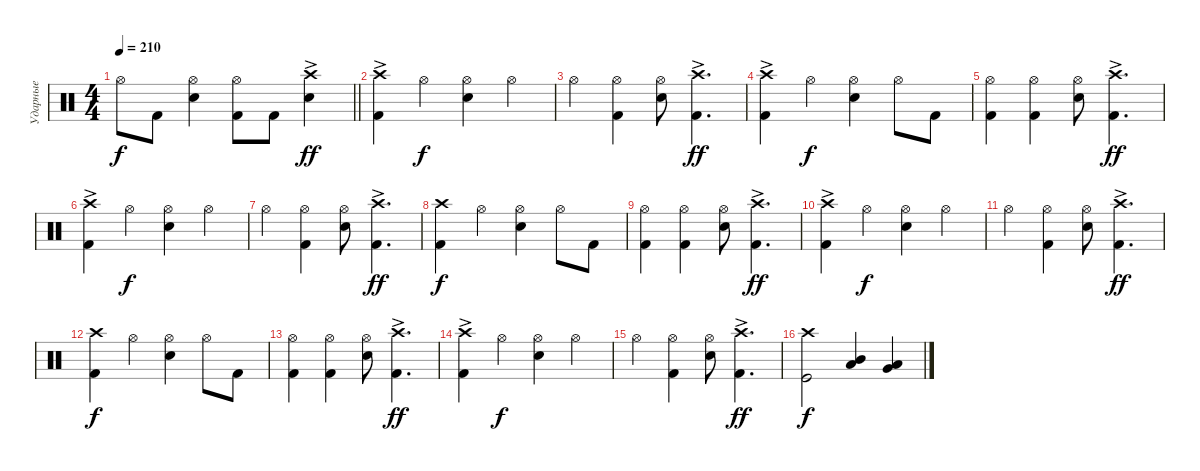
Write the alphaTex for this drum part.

\track ("Ударные" "Ударные") {instrument percussion}
\staff {score}
\articulation defaults
\ts (4 4)
\tempo 210
\clef neutral
\barLineRight lightlight
\ks c "Hi-Hat (open)".8{dy f} "Kick (hit) 2".8
("Hi-Hat (open)" "Snare (hit) 2").4 ("Hi-Hat (open)" "Kick (hit) 2").8 "Kick (hit) 2".8 ("Crash high (hit)"{ac} "Snare (hit) 2").4{dy ff} |
\section ("" "")
("Crash high (hit)"{ac} "Kick (hit) 2").4 "Hi-Hat (open)".4{dy f} ("Hi-Hat (open)" "Snare (hit) 2").4 "Hi-Hat (open)".4 |
"Hi-Hat (open)".4 ("Hi-Hat (open)" "Kick (hit) 2").4 ("Hi-Hat (open)" "Snare (hit) 2").8 ("Crash high (hit)"{ac} "Kick (hit) 2").4{d dy ff} |
("Crash high (hit)"{ac} "Kick (hit) 2").4 "Hi-Hat (open)".4{dy f} ("Hi-Hat (open)" "Snare (hit) 2").4 "Hi-Hat (open)".8 "Kick (hit) 2".8 |
("Hi-Hat (open)" "Kick (hit) 2").4 ("Hi-Hat (open)" "Kick (hit) 2").4 ("Hi-Hat (open)" "Snare (hit) 2").8 ("Crash high (hit)"{ac} "Kick (hit) 2").4{d dy ff} |
("Crash high (hit)"{ac} "Kick (hit) 2").4 "Hi-Hat (open)".4{dy f} ("Hi-Hat (open)" "Snare (hit) 2").4 "Hi-Hat (open)".4 |
"Hi-Hat (open)".4 ("Hi-Hat (open)" "Kick (hit) 2").4 ("Hi-Hat (open)" "Snare (hit) 2").8 ("Crash high (hit)"{ac} "Kick (hit) 2").4{d dy ff} |
("Crash high (hit)" "Kick (hit) 2").4{dy f} "Hi-Hat (open)".4 ("Hi-Hat (open)" "Snare (hit) 2").4 "Hi-Hat (open)".8 "Kick (hit) 2".8 |
("Hi-Hat (open)" "Kick (hit) 2").4 ("Hi-Hat (open)" "Kick (hit) 2").4 ("Hi-Hat (open)" "Snare (hit) 2").8 ("Crash high (hit)"{ac} "Kick (hit) 2").4{d dy ff} |
("Crash high (hit)"{ac} "Kick (hit) 2").4 "Hi-Hat (open)".4{dy f} ("Hi-Hat (open)" "Snare (hit) 2").4 "Hi-Hat (open)".4 |
"Hi-Hat (open)".4 ("Hi-Hat (open)" "Kick (hit) 2").4 ("Hi-Hat (open)" "Snare (hit) 2").8 ("Crash high (hit)"{ac} "Kick (hit) 2").4{d dy ff} |
("Crash high (hit)" "Kick (hit) 2").4{dy f} "Hi-Hat (open)".4 ("Hi-Hat (open)" "Snare (hit) 2").4 "Hi-Hat (open)".8 "Kick (hit) 2".8 |
("Hi-Hat (open)" "Kick (hit) 2").4 ("Hi-Hat (open)" "Kick (hit) 2").4 ("Hi-Hat (open)" "Snare (hit) 2").8 ("Crash high (hit)"{ac} "Kick (hit) 2").4{d dy ff} |
("Crash high (hit)"{ac} "Kick (hit) 2").4 "Hi-Hat (open)".4{dy f} ("Hi-Hat (open)" "Snare (hit) 2").4 "Hi-Hat (open)".4 |
"Hi-Hat (open)".4 ("Hi-Hat (open)" "Kick (hit) 2").4 ("Hi-Hat (open)" "Snare (hit) 2").8 ("Crash high (hit)"{ac} "Kick (hit) 2").4{d dy ff} |
("Crash high (hit)" "Kick (hit)").2{dy f} ("Mid Tom (hit)" "Low Tom (hit)").4 ("Low Tom (hit)" "Very Low Tom (hit)").4
